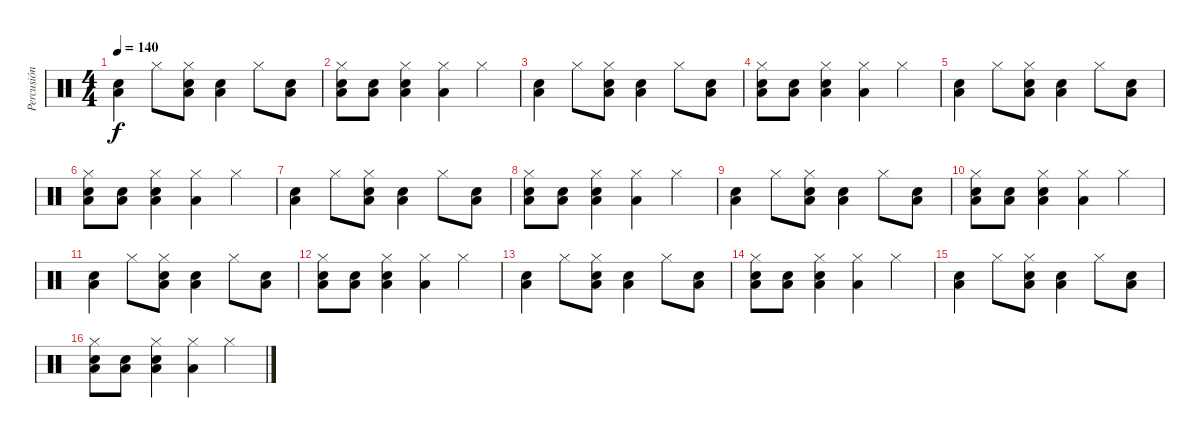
\track ("Percusión" "Percusión") {instrument percussion}
\staff {score}
\articulation defaults
\ts (4 4)
\tempo 140
\clef neutral
\ks c
("Low Tom (hit)" "Snare (hit) 2").4{dy f} "Hi-Hat (closed)".8 ("Hi-Hat (closed)" "Snare (hit) 2" "Low Tom (hit)").8 ("Low Tom (hit)" "Snare (hit) 2").4 "Hi-Hat (closed)".8 ("Snare (hit) 2" "Low Tom (hit)").8 |
("Hi-Hat (closed)" "Snare (hit) 2" "Low Tom (hit)").8 ("Snare (hit) 2" "Low Tom (hit)").8 ("Snare (hit) 2" "Low Tom (hit)" "Hi-Hat (closed)").4 ("Low Tom (hit)" "Hi-Hat (closed)").4 "Hi-Hat (closed)".4 |
("Low Tom (hit)" "Snare (hit) 2").4 "Hi-Hat (closed)".8 ("Hi-Hat (closed)" "Snare (hit) 2" "Low Tom (hit)").8 ("Low Tom (hit)" "Snare (hit) 2").4 "Hi-Hat (closed)".8 ("Snare (hit) 2" "Low Tom (hit)").8 |
("Hi-Hat (closed)" "Snare (hit) 2" "Low Tom (hit)").8 ("Snare (hit) 2" "Low Tom (hit)").8 ("Snare (hit) 2" "Low Tom (hit)" "Hi-Hat (closed)").4 ("Low Tom (hit)" "Hi-Hat (closed)").4 "Hi-Hat (closed)".4 |
("Low Tom (hit)" "Snare (hit) 2").4 "Hi-Hat (closed)".8 ("Hi-Hat (closed)" "Snare (hit) 2" "Low Tom (hit)").8 ("Low Tom (hit)" "Snare (hit) 2").4 "Hi-Hat (closed)".8 ("Snare (hit) 2" "Low Tom (hit)").8 |
("Hi-Hat (closed)" "Snare (hit) 2" "Low Tom (hit)").8 ("Snare (hit) 2" "Low Tom (hit)").8 ("Snare (hit) 2" "Low Tom (hit)" "Hi-Hat (closed)").4 ("Low Tom (hit)" "Hi-Hat (closed)").4 "Hi-Hat (closed)".4 |
("Low Tom (hit)" "Snare (hit) 2").4 "Hi-Hat (closed)".8 ("Hi-Hat (closed)" "Snare (hit) 2" "Low Tom (hit)").8 ("Low Tom (hit)" "Snare (hit) 2").4 "Hi-Hat (closed)".8 ("Snare (hit) 2" "Low Tom (hit)").8 |
("Hi-Hat (closed)" "Snare (hit) 2" "Low Tom (hit)").8 ("Snare (hit) 2" "Low Tom (hit)").8 ("Snare (hit) 2" "Low Tom (hit)" "Hi-Hat (closed)").4 ("Low Tom (hit)" "Hi-Hat (closed)").4 "Hi-Hat (closed)".4 |
("Low Tom (hit)" "Snare (hit) 2").4 "Hi-Hat (closed)".8 ("Hi-Hat (closed)" "Snare (hit) 2" "Low Tom (hit)").8 ("Low Tom (hit)" "Snare (hit) 2").4 "Hi-Hat (closed)".8 ("Snare (hit) 2" "Low Tom (hit)").8 |
("Hi-Hat (closed)" "Snare (hit) 2" "Low Tom (hit)").8 ("Snare (hit) 2" "Low Tom (hit)").8 ("Snare (hit) 2" "Low Tom (hit)" "Hi-Hat (closed)").4 ("Low Tom (hit)" "Hi-Hat (closed)").4 "Hi-Hat (closed)".4 |
("Low Tom (hit)" "Snare (hit) 2").4 "Hi-Hat (closed)".8 ("Hi-Hat (closed)" "Snare (hit) 2" "Low Tom (hit)").8 ("Low Tom (hit)" "Snare (hit) 2").4 "Hi-Hat (closed)".8 ("Snare (hit) 2" "Low Tom (hit)").8 |
("Hi-Hat (closed)" "Snare (hit) 2" "Low Tom (hit)").8 ("Snare (hit) 2" "Low Tom (hit)").8 ("Snare (hit) 2" "Low Tom (hit)" "Hi-Hat (closed)").4 ("Low Tom (hit)" "Hi-Hat (closed)").4 "Hi-Hat (closed)".4 |
("Low Tom (hit)" "Snare (hit) 2").4 "Hi-Hat (closed)".8 ("Hi-Hat (closed)" "Snare (hit) 2" "Low Tom (hit)").8 ("Low Tom (hit)" "Snare (hit) 2").4 "Hi-Hat (closed)".8 ("Snare (hit) 2" "Low Tom (hit)").8 |
("Hi-Hat (closed)" "Snare (hit) 2" "Low Tom (hit)").8 ("Snare (hit) 2" "Low Tom (hit)").8 ("Snare (hit) 2" "Low Tom (hit)" "Hi-Hat (closed)").4 ("Low Tom (hit)" "Hi-Hat (closed)").4 "Hi-Hat (closed)".4 |
("Low Tom (hit)" "Snare (hit) 2").4 "Hi-Hat (closed)".8 ("Hi-Hat (closed)" "Snare (hit) 2" "Low Tom (hit)").8 ("Low Tom (hit)" "Snare (hit) 2").4 "Hi-Hat (closed)".8 ("Snare (hit) 2" "Low Tom (hit)").8 |
("Hi-Hat (closed)" "Snare (hit) 2" "Low Tom (hit)").8 ("Snare (hit) 2" "Low Tom (hit)").8 ("Snare (hit) 2" "Low Tom (hit)" "Hi-Hat (closed)").4 ("Low Tom (hit)" "Hi-Hat (closed)").4 "Hi-Hat (closed)".4
